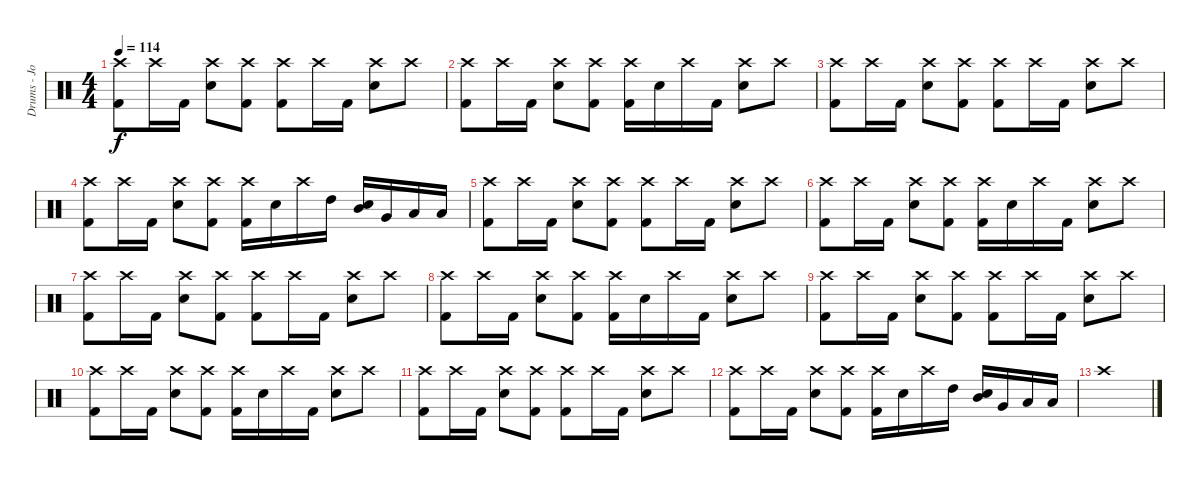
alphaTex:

\track ("Drums - Jon Wysocki" "Drums - Jo") {instrument percussion}
\staff {score}
\articulation defaults
\ts (4 4)
\tempo 114
\clef neutral
\ks c
("Crash high (hit)" "Kick (hit) 2").8{dy f} "Crash high (hit)".16 "Kick (hit) 2".16 ("Crash high (hit)" "Electric Snare (hit)").8 ("Crash high (hit)" "Kick (hit) 2").8 ("Crash high (hit)" "Kick (hit) 2").8 "Crash high (hit)".16 "Kick (hit) 2".16 ("Crash high (hit)" "Electric Snare (hit)").8 "Crash high (hit)".8 |
("Crash high (hit)" "Kick (hit) 2").8 "Crash high (hit)".16 "Kick (hit) 2".16 ("Crash high (hit)" "Electric Snare (hit)").8 ("Crash high (hit)" "Kick (hit) 2").8 ("Crash high (hit)" "Kick (hit) 2").16 "Electric Snare (hit)".16 "Crash high (hit)".16 "Kick (hit) 2".16 ("Crash high (hit)" "Electric Snare (hit)").8 "Crash high (hit)".8 |
("Crash high (hit)" "Kick (hit) 2").8 "Crash high (hit)".16 "Kick (hit) 2".16 ("Crash high (hit)" "Electric Snare (hit)").8 ("Crash high (hit)" "Kick (hit) 2").8 ("Crash high (hit)" "Kick (hit) 2").8 "Crash high (hit)".16 "Kick (hit) 2".16 ("Crash high (hit)" "Electric Snare (hit)").8 "Crash high (hit)".8 |
("Crash high (hit)" "Kick (hit) 2").8 "Crash high (hit)".16 "Kick (hit) 2".16 ("Crash high (hit)" "Electric Snare (hit)").8 ("Crash high (hit)" "Kick (hit) 2").8 ("Crash high (hit)" "Kick (hit) 2").16 "Electric Snare (hit)".16 "Crash high (hit)".16 "High Tom (hit)".16 ("Mid Tom (hit)" "Electric Snare (hit)").16 "Very Low Tom (hit)".16 "Low Tom (hit)".16 "Low Floor Tom (hit)".16 |
("Crash high (hit)" "Kick (hit) 2").8 "Crash high (hit)".16 "Kick (hit) 2".16 ("Crash high (hit)" "Electric Snare (hit)").8 ("Crash high (hit)" "Kick (hit) 2").8 ("Crash high (hit)" "Kick (hit) 2").8 "Crash high (hit)".16 "Kick (hit) 2".16 ("Crash high (hit)" "Electric Snare (hit)").8 "Crash high (hit)".8 |
("Crash high (hit)" "Kick (hit) 2").8 "Crash high (hit)".16 "Kick (hit) 2".16 ("Crash high (hit)" "Electric Snare (hit)").8 ("Crash high (hit)" "Kick (hit) 2").8 ("Crash high (hit)" "Kick (hit) 2").16 "Electric Snare (hit)".16 "Crash high (hit)".16 "Kick (hit) 2".16 ("Crash high (hit)" "Electric Snare (hit)").8 "Crash high (hit)".8 |
("Crash high (hit)" "Kick (hit) 2").8 "Crash high (hit)".16 "Kick (hit) 2".16 ("Crash high (hit)" "Electric Snare (hit)").8 ("Crash high (hit)" "Kick (hit) 2").8 ("Crash high (hit)" "Kick (hit) 2").8 "Crash high (hit)".16 "Kick (hit) 2".16 ("Crash high (hit)" "Electric Snare (hit)").8 "Crash high (hit)".8 |
("Crash high (hit)" "Kick (hit) 2").8 "Crash high (hit)".16 "Kick (hit) 2".16 ("Crash high (hit)" "Electric Snare (hit)").8 ("Crash high (hit)" "Kick (hit) 2").8 ("Crash high (hit)" "Kick (hit) 2").16 "Electric Snare (hit)".16 "Crash high (hit)".16 "Kick (hit) 2".16 ("Crash high (hit)" "Electric Snare (hit)").8 "Crash high (hit)".8 |
("Crash high (hit)" "Kick (hit) 2").8 "Crash high (hit)".16 "Kick (hit) 2".16 ("Crash high (hit)" "Electric Snare (hit)").8 ("Crash high (hit)" "Kick (hit) 2").8 ("Crash high (hit)" "Kick (hit) 2").8 "Crash high (hit)".16 "Kick (hit) 2".16 ("Crash high (hit)" "Electric Snare (hit)").8 "Crash high (hit)".8 |
("Crash high (hit)" "Kick (hit) 2").8 "Crash high (hit)".16 "Kick (hit) 2".16 ("Crash high (hit)" "Electric Snare (hit)").8 ("Crash high (hit)" "Kick (hit) 2").8 ("Crash high (hit)" "Kick (hit) 2").16 "Electric Snare (hit)".16 "Crash high (hit)".16 "Kick (hit) 2".16 ("Crash high (hit)" "Electric Snare (hit)").8 "Crash high (hit)".8 |
("Crash high (hit)" "Kick (hit) 2").8 "Crash high (hit)".16 "Kick (hit) 2".16 ("Crash high (hit)" "Electric Snare (hit)").8 ("Crash high (hit)" "Kick (hit) 2").8 ("Crash high (hit)" "Kick (hit) 2").8 "Crash high (hit)".16 "Kick (hit) 2".16 ("Crash high (hit)" "Electric Snare (hit)").8 "Crash high (hit)".8 |
("Crash high (hit)" "Kick (hit) 2").8 "Crash high (hit)".16 "Kick (hit) 2".16 ("Crash high (hit)" "Electric Snare (hit)").8 ("Crash high (hit)" "Kick (hit) 2").8 ("Crash high (hit)" "Kick (hit) 2").16 "Electric Snare (hit)".16 "Crash high (hit)".16 "High Tom (hit)".16 ("Mid Tom (hit)" "Electric Snare (hit)").16 "Very Low Tom (hit)".16 "Low Tom (hit)".16 "Low Floor Tom (hit)".16 |
"Crash high (hit)".1
